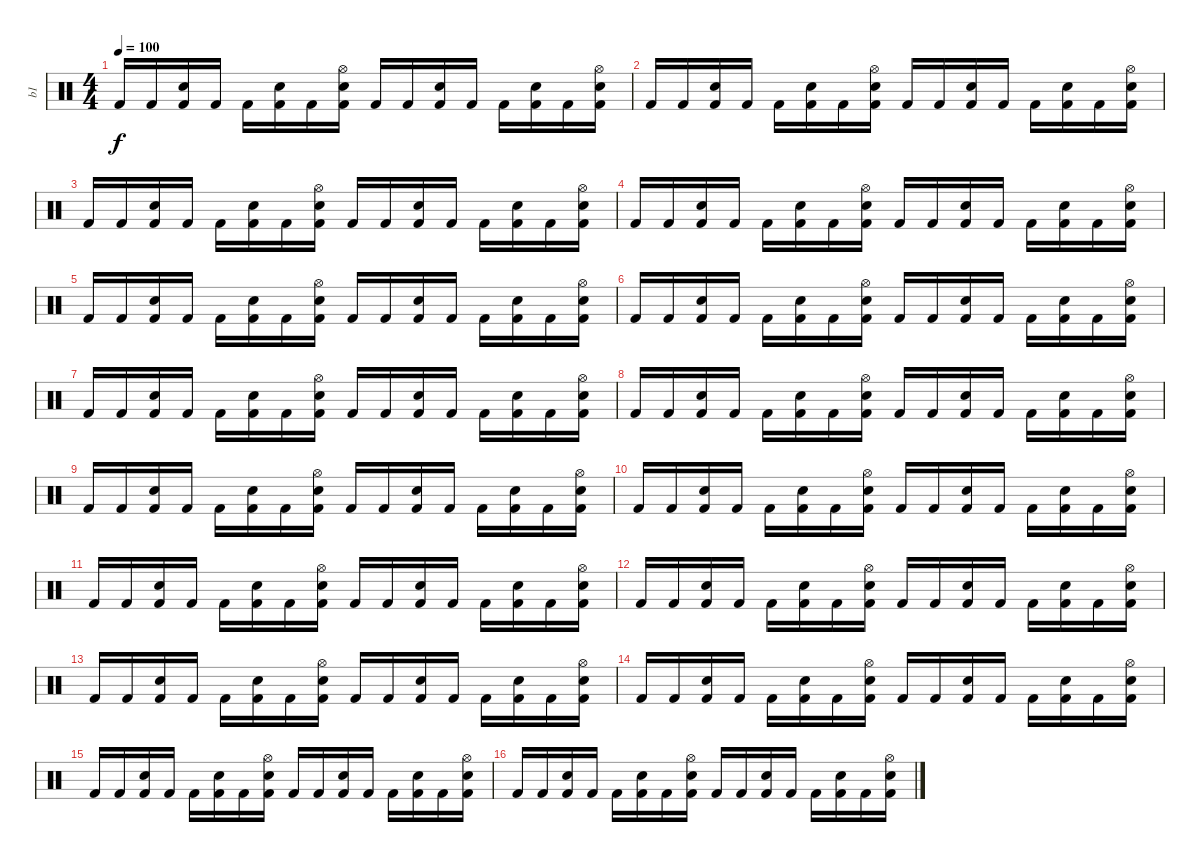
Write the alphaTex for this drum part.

\track ("b1" "b1") {instrument percussion}
\staff {score}
\articulation defaults
\ts (4 4)
\tempo 100
\clef neutral
\ks c "Kick (hit) 2".16{dy f} "Kick (hit) 2".16
("Electric Snare (hit)" "Kick (hit) 2").16 "Kick (hit) 2".16 "Kick (hit) 2".16 ("Electric Snare (hit)" "Kick (hit) 2").16 "Kick (hit) 2".16 ("Hi-Hat (open)" "Electric Snare (hit)" "Kick (hit) 2").16 "Kick (hit) 2".16 "Kick (hit) 2".16 ("Electric Snare (hit)" "Kick (hit) 2").16 "Kick (hit) 2".16 "Kick (hit) 2".16 ("Electric Snare (hit)" "Kick (hit) 2").16 "Kick (hit) 2".16 ("Hi-Hat (open)" "Electric Snare (hit)" "Kick (hit) 2").16 |
"Kick (hit) 2".16 "Kick (hit) 2".16 ("Electric Snare (hit)" "Kick (hit) 2").16 "Kick (hit) 2".16 "Kick (hit) 2".16 ("Electric Snare (hit)" "Kick (hit) 2").16 "Kick (hit) 2".16 ("Hi-Hat (open)" "Electric Snare (hit)" "Kick (hit) 2").16 "Kick (hit) 2".16 "Kick (hit) 2".16 ("Electric Snare (hit)" "Kick (hit) 2").16 "Kick (hit) 2".16 "Kick (hit) 2".16 ("Electric Snare (hit)" "Kick (hit) 2").16 "Kick (hit) 2".16 ("Hi-Hat (open)" "Electric Snare (hit)" "Kick (hit) 2").16 |
"Kick (hit) 2".16 "Kick (hit) 2".16 ("Electric Snare (hit)" "Kick (hit) 2").16 "Kick (hit) 2".16 "Kick (hit) 2".16 ("Electric Snare (hit)" "Kick (hit) 2").16 "Kick (hit) 2".16 ("Hi-Hat (open)" "Electric Snare (hit)" "Kick (hit) 2").16 "Kick (hit) 2".16 "Kick (hit) 2".16 ("Electric Snare (hit)" "Kick (hit) 2").16 "Kick (hit) 2".16 "Kick (hit) 2".16 ("Electric Snare (hit)" "Kick (hit) 2").16 "Kick (hit) 2".16 ("Hi-Hat (open)" "Electric Snare (hit)" "Kick (hit) 2").16 |
"Kick (hit) 2".16 "Kick (hit) 2".16 ("Electric Snare (hit)" "Kick (hit) 2").16 "Kick (hit) 2".16 "Kick (hit) 2".16 ("Electric Snare (hit)" "Kick (hit) 2").16 "Kick (hit) 2".16 ("Hi-Hat (open)" "Electric Snare (hit)" "Kick (hit) 2").16 "Kick (hit) 2".16 "Kick (hit) 2".16 ("Electric Snare (hit)" "Kick (hit) 2").16 "Kick (hit) 2".16 "Kick (hit) 2".16 ("Electric Snare (hit)" "Kick (hit) 2").16 "Kick (hit) 2".16 ("Hi-Hat (open)" "Electric Snare (hit)" "Kick (hit) 2").16 |
"Kick (hit) 2".16 "Kick (hit) 2".16 ("Electric Snare (hit)" "Kick (hit) 2").16 "Kick (hit) 2".16 "Kick (hit) 2".16 ("Electric Snare (hit)" "Kick (hit) 2").16 "Kick (hit) 2".16 ("Hi-Hat (open)" "Electric Snare (hit)" "Kick (hit) 2").16 "Kick (hit) 2".16 "Kick (hit) 2".16 ("Electric Snare (hit)" "Kick (hit) 2").16 "Kick (hit) 2".16 "Kick (hit) 2".16 ("Electric Snare (hit)" "Kick (hit) 2").16 "Kick (hit) 2".16 ("Hi-Hat (open)" "Electric Snare (hit)" "Kick (hit) 2").16 |
"Kick (hit) 2".16 "Kick (hit) 2".16 ("Electric Snare (hit)" "Kick (hit) 2").16 "Kick (hit) 2".16 "Kick (hit) 2".16 ("Electric Snare (hit)" "Kick (hit) 2").16 "Kick (hit) 2".16 ("Hi-Hat (open)" "Electric Snare (hit)" "Kick (hit) 2").16 "Kick (hit) 2".16 "Kick (hit) 2".16 ("Electric Snare (hit)" "Kick (hit) 2").16 "Kick (hit) 2".16 "Kick (hit) 2".16 ("Electric Snare (hit)" "Kick (hit) 2").16 "Kick (hit) 2".16 ("Hi-Hat (open)" "Electric Snare (hit)" "Kick (hit) 2").16 |
"Kick (hit) 2".16 "Kick (hit) 2".16 ("Electric Snare (hit)" "Kick (hit) 2").16 "Kick (hit) 2".16 "Kick (hit) 2".16 ("Electric Snare (hit)" "Kick (hit) 2").16 "Kick (hit) 2".16 ("Hi-Hat (open)" "Electric Snare (hit)" "Kick (hit) 2").16 "Kick (hit) 2".16 "Kick (hit) 2".16 ("Electric Snare (hit)" "Kick (hit) 2").16 "Kick (hit) 2".16 "Kick (hit) 2".16 ("Electric Snare (hit)" "Kick (hit) 2").16 "Kick (hit) 2".16 ("Hi-Hat (open)" "Electric Snare (hit)" "Kick (hit) 2").16 |
"Kick (hit) 2".16 "Kick (hit) 2".16 ("Electric Snare (hit)" "Kick (hit) 2").16 "Kick (hit) 2".16 "Kick (hit) 2".16 ("Electric Snare (hit)" "Kick (hit) 2").16 "Kick (hit) 2".16 ("Hi-Hat (open)" "Electric Snare (hit)" "Kick (hit) 2").16 "Kick (hit) 2".16 "Kick (hit) 2".16 ("Electric Snare (hit)" "Kick (hit) 2").16 "Kick (hit) 2".16 "Kick (hit) 2".16 ("Electric Snare (hit)" "Kick (hit) 2").16 "Kick (hit) 2".16 ("Hi-Hat (open)" "Electric Snare (hit)" "Kick (hit) 2").16 |
"Kick (hit) 2".16 "Kick (hit) 2".16 ("Electric Snare (hit)" "Kick (hit) 2").16 "Kick (hit) 2".16 "Kick (hit) 2".16 ("Electric Snare (hit)" "Kick (hit) 2").16 "Kick (hit) 2".16 ("Hi-Hat (open)" "Electric Snare (hit)" "Kick (hit) 2").16 "Kick (hit) 2".16 "Kick (hit) 2".16 ("Electric Snare (hit)" "Kick (hit) 2").16 "Kick (hit) 2".16 "Kick (hit) 2".16 ("Electric Snare (hit)" "Kick (hit) 2").16 "Kick (hit) 2".16 ("Hi-Hat (open)" "Electric Snare (hit)" "Kick (hit) 2").16 |
"Kick (hit) 2".16 "Kick (hit) 2".16 ("Electric Snare (hit)" "Kick (hit) 2").16 "Kick (hit) 2".16 "Kick (hit) 2".16 ("Electric Snare (hit)" "Kick (hit) 2").16 "Kick (hit) 2".16 ("Hi-Hat (open)" "Electric Snare (hit)" "Kick (hit) 2").16 "Kick (hit) 2".16 "Kick (hit) 2".16 ("Electric Snare (hit)" "Kick (hit) 2").16 "Kick (hit) 2".16 "Kick (hit) 2".16 ("Electric Snare (hit)" "Kick (hit) 2").16 "Kick (hit) 2".16 ("Hi-Hat (open)" "Electric Snare (hit)" "Kick (hit) 2").16 |
"Kick (hit) 2".16 "Kick (hit) 2".16 ("Electric Snare (hit)" "Kick (hit) 2").16 "Kick (hit) 2".16 "Kick (hit) 2".16 ("Electric Snare (hit)" "Kick (hit) 2").16 "Kick (hit) 2".16 ("Hi-Hat (open)" "Electric Snare (hit)" "Kick (hit) 2").16 "Kick (hit) 2".16 "Kick (hit) 2".16 ("Electric Snare (hit)" "Kick (hit) 2").16 "Kick (hit) 2".16 "Kick (hit) 2".16 ("Electric Snare (hit)" "Kick (hit) 2").16 "Kick (hit) 2".16 ("Hi-Hat (open)" "Electric Snare (hit)" "Kick (hit) 2").16 |
"Kick (hit) 2".16 "Kick (hit) 2".16 ("Electric Snare (hit)" "Kick (hit) 2").16 "Kick (hit) 2".16 "Kick (hit) 2".16 ("Electric Snare (hit)" "Kick (hit) 2").16 "Kick (hit) 2".16 ("Hi-Hat (open)" "Electric Snare (hit)" "Kick (hit) 2").16 "Kick (hit) 2".16 "Kick (hit) 2".16 ("Electric Snare (hit)" "Kick (hit) 2").16 "Kick (hit) 2".16 "Kick (hit) 2".16 ("Electric Snare (hit)" "Kick (hit) 2").16 "Kick (hit) 2".16 ("Hi-Hat (open)" "Electric Snare (hit)" "Kick (hit) 2").16 |
"Kick (hit) 2".16 "Kick (hit) 2".16 ("Electric Snare (hit)" "Kick (hit) 2").16 "Kick (hit) 2".16 "Kick (hit) 2".16 ("Electric Snare (hit)" "Kick (hit) 2").16 "Kick (hit) 2".16 ("Hi-Hat (open)" "Electric Snare (hit)" "Kick (hit) 2").16 "Kick (hit) 2".16 "Kick (hit) 2".16 ("Electric Snare (hit)" "Kick (hit) 2").16 "Kick (hit) 2".16 "Kick (hit) 2".16 ("Electric Snare (hit)" "Kick (hit) 2").16 "Kick (hit) 2".16 ("Hi-Hat (open)" "Electric Snare (hit)" "Kick (hit) 2").16 |
"Kick (hit) 2".16{volume 0} "Kick (hit) 2".16 ("Electric Snare (hit)" "Kick (hit) 2").16 "Kick (hit) 2".16 "Kick (hit) 2".16 ("Electric Snare (hit)" "Kick (hit) 2").16 "Kick (hit) 2".16 ("Hi-Hat (open)" "Electric Snare (hit)" "Kick (hit) 2").16 "Kick (hit) 2".16 "Kick (hit) 2".16 ("Electric Snare (hit)" "Kick (hit) 2").16 "Kick (hit) 2".16 "Kick (hit) 2".16 ("Electric Snare (hit)" "Kick (hit) 2").16 "Kick (hit) 2".16 ("Hi-Hat (open)" "Electric Snare (hit)" "Kick (hit) 2").16 |
"Kick (hit) 2".16 "Kick (hit) 2".16 ("Electric Snare (hit)" "Kick (hit) 2").16 "Kick (hit) 2".16 "Kick (hit) 2".16 ("Electric Snare (hit)" "Kick (hit) 2").16 "Kick (hit) 2".16 ("Hi-Hat (open)" "Electric Snare (hit)" "Kick (hit) 2").16 "Kick (hit) 2".16 "Kick (hit) 2".16 ("Electric Snare (hit)" "Kick (hit) 2").16 "Kick (hit) 2".16 "Kick (hit) 2".16 ("Electric Snare (hit)" "Kick (hit) 2").16 "Kick (hit) 2".16 ("Hi-Hat (open)" "Electric Snare (hit)" "Kick (hit) 2").16 |
"Kick (hit) 2".16 "Kick (hit) 2".16 ("Electric Snare (hit)" "Kick (hit) 2").16 "Kick (hit) 2".16 "Kick (hit) 2".16 ("Electric Snare (hit)" "Kick (hit) 2").16 "Kick (hit) 2".16 ("Hi-Hat (open)" "Electric Snare (hit)" "Kick (hit) 2").16 "Kick (hit) 2".16 "Kick (hit) 2".16 ("Electric Snare (hit)" "Kick (hit) 2").16 "Kick (hit) 2".16 "Kick (hit) 2".16 ("Electric Snare (hit)" "Kick (hit) 2").16 "Kick (hit) 2".16 ("Hi-Hat (open)" "Electric Snare (hit)" "Kick (hit) 2").16
